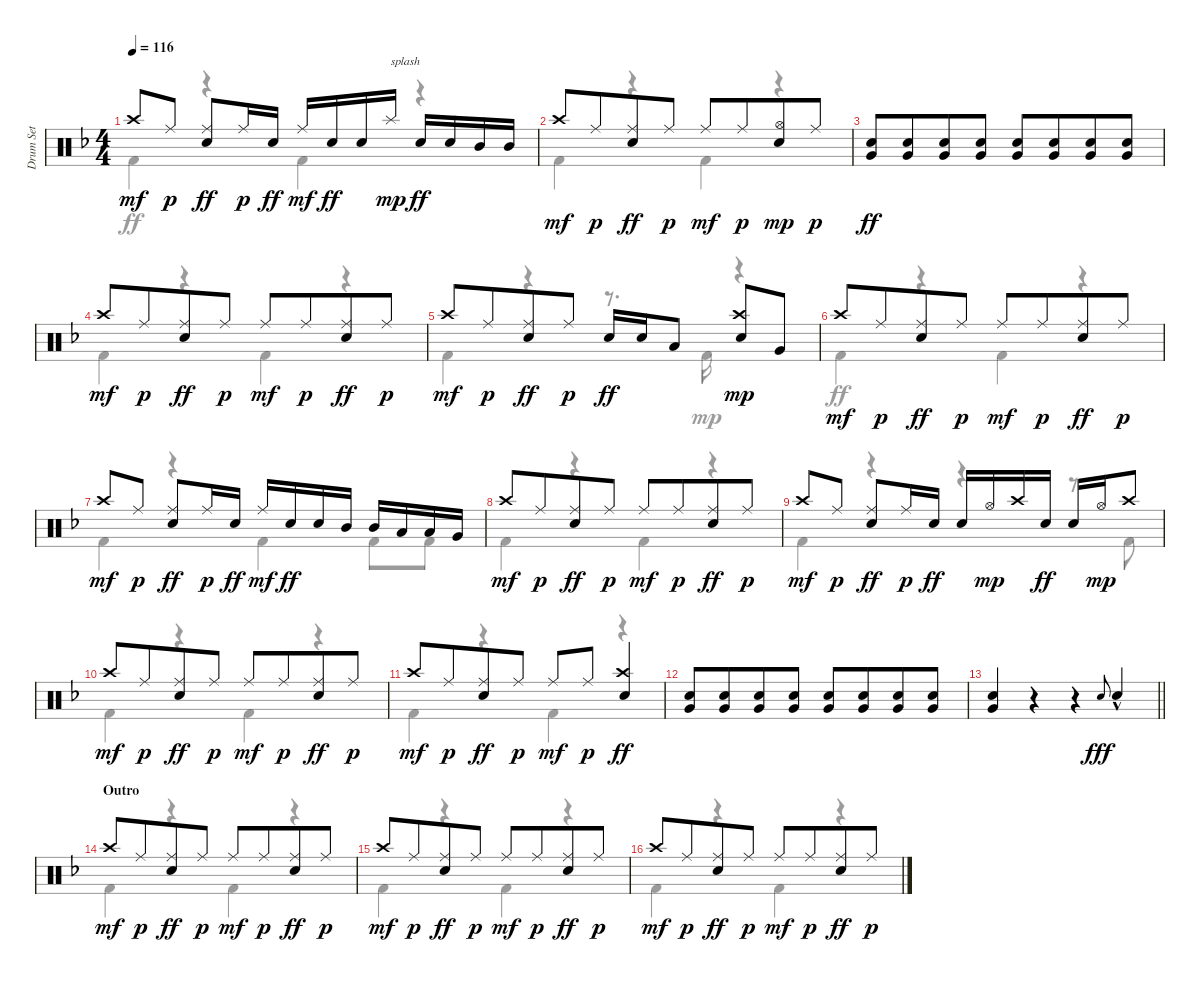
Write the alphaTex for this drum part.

\track ("Drum Set" "Drum Set") {instrument percussion}
\staff {score}
\articulation defaults
\voice
\ts (4 4)
\tempo 116
\clef neutral
\ks f "Crash high (hit)".8{dy mf} "Ride (middle)".8{dy p beam split}
("Ride (middle)" "Electric Snare (hit)").8{dy ff} "Ride (middle)".16{dy p} "Electric Snare (hit)".16{dy ff} "Ride (middle)".16{dy mf} "Electric Snare (hit)".16{dy ff} "Electric Snare (hit)".16 "Splash (hit)".16{txt "splash" dy mp} "Electric Snare (hit)".16{dy ff} "Electric Snare (hit)".16 "Mid Tom (hit)".16 "Mid Tom (hit)".16 |
"Crash high (hit)".8{dy mf} "Ride (middle)".8{dy p beam merge} ("Ride (middle)" "Electric Snare (hit)").8{dy ff} "Ride (middle)".8{dy p} "Ride (middle)".8{dy mf} "Ride (middle)".8{dy p beam merge} ("Electric Snare (hit)" "Hi-Hat (open)").8{dy mp} "Ride (middle)".8{dy p} |
("Electric Snare (hit)" "Very Low Tom (hit)").8{dy ff beam Up} ("Electric Snare (hit)" "Very Low Tom (hit)").8{beam Up beam merge} ("Electric Snare (hit)" "Very Low Tom (hit)").8{beam Up} ("Electric Snare (hit)" "Very Low Tom (hit)").8{beam Up} ("Electric Snare (hit)" "Very Low Tom (hit)").8{beam Up} ("Electric Snare (hit)" "Very Low Tom (hit)").8{beam Up beam merge} ("Electric Snare (hit)" "Very Low Tom (hit)").8{beam Up} ("Electric Snare (hit)" "Very Low Tom (hit)").8{beam Up} |
"Crash high (hit)".8{dy mf} "Ride (middle)".8{dy p beam merge} ("Ride (middle)" "Electric Snare (hit)").8{dy ff} "Ride (middle)".8{dy p} "Ride (middle)".8{dy mf} "Ride (middle)".8{dy p beam merge} ("Ride (middle)" "Electric Snare (hit)").8{dy ff} "Ride (middle)".8{dy p} |
"Crash high (hit)".8{dy mf} "Ride (middle)".8{dy p beam merge} ("Ride (middle)" "Electric Snare (hit)").8{dy ff} "Ride (middle)".8{dy p} "Electric Snare (hit)".16{dy ff} "Electric Snare (hit)".16 "Low Tom (hit)".8 ("Electric Snare (hit)" "Crash high (hit)").8{dy mp} "Very Low Tom (hit)".8 |
"Crash high (hit)".8{dy mf} "Ride (middle)".8{dy p beam merge} ("Ride (middle)" "Electric Snare (hit)").8{dy ff} "Ride (middle)".8{dy p} "Ride (middle)".8{dy mf} "Ride (middle)".8{dy p beam merge} ("Ride (middle)" "Electric Snare (hit)").8{dy ff} "Ride (middle)".8{dy p} |
"Crash high (hit)".8{dy mf} "Ride (middle)".8{dy p beam split} ("Ride (middle)" "Electric Snare (hit)").8{dy ff} "Ride (middle)".16{dy p} "Electric Snare (hit)".16{dy ff} "Ride (middle)".16{dy mf} "Electric Snare (hit)".16{dy ff beam merge} "Electric Snare (hit)".16 "Mid Tom (hit)".16 "Mid Tom (hit)".16 "Low Tom (hit)".16 "Low Tom (hit)".16 "Very Low Tom (hit)".16 |
"Crash high (hit)".8{dy mf} "Ride (middle)".8{dy p beam merge} ("Ride (middle)" "Electric Snare (hit)").8{dy ff} "Ride (middle)".8{dy p} "Ride (middle)".8{dy mf} "Ride (middle)".8{dy p beam merge} ("Ride (middle)" "Electric Snare (hit)").8{dy ff} "Ride (middle)".8{dy p} |
"Crash high (hit)".8{dy mf} "Ride (middle)".8{dy p beam split} ("Ride (middle)" "Electric Snare (hit)").8{dy ff} "Ride (middle)".16{dy p} "Electric Snare (hit)".16{dy ff} "Electric Snare (hit)".16 "Hi-Hat (open)".16{dy mp} "Crash high (hit)".16 "Electric Snare (hit)".16{dy ff} "Electric Snare (hit)".16 "Hi-Hat (open)".16{dy mp} "Crash high (hit)".8 |
"Crash high (hit)".8{dy mf} "Ride (middle)".8{dy p beam merge} ("Ride (middle)" "Electric Snare (hit)").8{dy ff} "Ride (middle)".8{dy p} "Ride (middle)".8{dy mf} "Ride (middle)".8{dy p beam merge} ("Ride (middle)" "Electric Snare (hit)").8{dy ff} "Ride (middle)".8{dy p} |
"Crash high (hit)".8{dy mf} "Ride (middle)".8{dy p beam merge} ("Ride (middle)" "Electric Snare (hit)").8{dy ff} "Ride (middle)".8{dy p} "Ride (middle)".8{dy mf} "Ride (middle)".8{dy p beam merge} ("Crash high (hit)" "Electric Snare (hit)").4{dy ff} |
("Electric Snare (hit)" "Very Low Tom (hit)").8{beam Up} ("Electric Snare (hit)" "Very Low Tom (hit)").8{beam Up beam merge} ("Electric Snare (hit)" "Very Low Tom (hit)").8{beam Up} ("Electric Snare (hit)" "Very Low Tom (hit)").8{beam Up} ("Electric Snare (hit)" "Very Low Tom (hit)").8{beam Up} ("Electric Snare (hit)" "Very Low Tom (hit)").8{beam Up beam merge} ("Electric Snare (hit)" "Very Low Tom (hit)").8{beam Up} ("Electric Snare (hit)" "Very Low Tom (hit)").8{beam Up} |
\barLineRight lightlight
("Electric Snare (hit)" "Very Low Tom (hit)").4{beam Up} r.4 r.4 "Electric Snare (hit)".8{gr onbeat dy fff} "Electric Snare (hit)"{hac}.4{beam Up} |
\section ("" "Outro")
"Crash high (hit)".8{dy mf} "Ride (middle)".8{dy p beam merge} ("Ride (middle)" "Electric Snare (hit)").8{dy ff} "Ride (middle)".8{dy p} "Ride (middle)".8{dy mf} "Ride (middle)".8{dy p beam merge} ("Ride (middle)" "Electric Snare (hit)").8{dy ff} "Ride (middle)".8{dy p} |
"Crash high (hit)".8{dy mf} "Ride (middle)".8{dy p beam merge} ("Ride (middle)" "Electric Snare (hit)").8{dy ff} "Ride (middle)".8{dy p} "Ride (middle)".8{dy mf} "Ride (middle)".8{dy p beam merge} ("Ride (middle)" "Electric Snare (hit)").8{dy ff} "Ride (middle)".8{dy p} |
"Crash high (hit)".8{dy mf} "Ride (middle)".8{dy p beam merge} ("Ride (middle)" "Electric Snare (hit)").8{dy ff} "Ride (middle)".8{dy p} "Ride (middle)".8{dy mf} "Ride (middle)".8{dy p beam merge} ("Ride (middle)" "Electric Snare (hit)").8{dy ff} "Ride (middle)".8{dy p}
\voice
\clef neutral
\ottava regular
\simile none
\ks f "Kick (hit) 2".4{dy ff}
r.4 "Kick (hit) 2".4 r.4 |
"Kick (hit) 2".4 r.4 "Kick (hit) 2".4 r.4 |
|
"Kick (hit) 2".4 r.4 "Kick (hit) 2".4 r.4 |
"Kick (hit) 2".4 r.4 r.8{d} "Kick (hit) 2".16{dy mp} r.4 |
"Kick (hit) 2".4{dy ff} r.4 "Kick (hit) 2".4 r.4 |
"Kick (hit) 2".4 r.4 "Kick (hit) 2".4 "Kick (hit) 2".8 "Kick (hit) 2".8 |
"Kick (hit) 2".4 r.4 "Kick (hit) 2".4 r.4 |
"Kick (hit) 2".4 r.4 r.4 r.8 "Kick (hit) 2".8 |
"Kick (hit) 2".4 r.4 "Kick (hit) 2".4 r.4 |
"Kick (hit) 2".4 r.4 "Kick (hit) 2".4 r.4 |
|
\barLineRight lightlight
|
"Kick (hit) 2".4 r.4 "Kick (hit) 2".4 r.4 |
"Kick (hit) 2".4 r.4 "Kick (hit) 2".4 r.4 |
"Kick (hit) 2".4 r.4 "Kick (hit) 2".4 r.4
